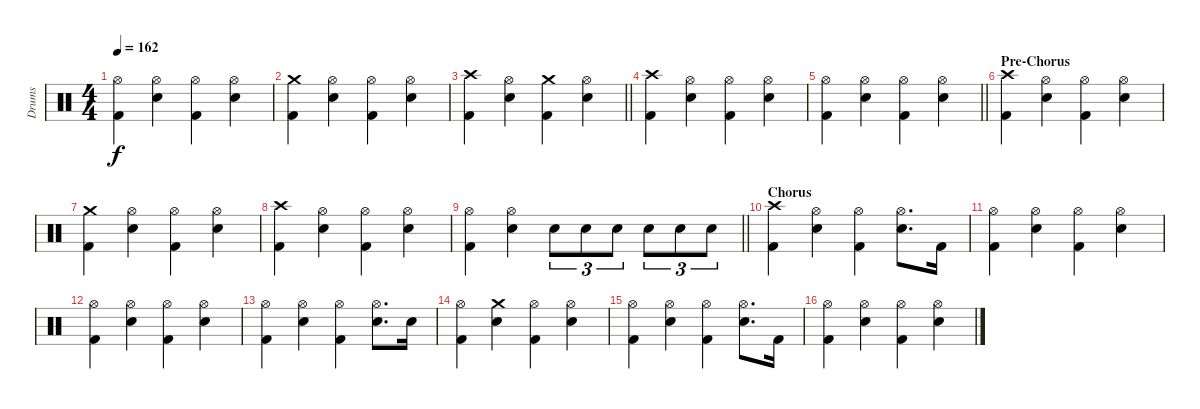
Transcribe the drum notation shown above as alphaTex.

\track ("Drums" "Drums") {instrument percussion}
\staff {score}
\articulation defaults
\ts (4 4)
\tempo 162
\clef neutral
\ks c
("Hi-Hat (open)" "Kick (hit) 2").4{dy f} ("Hi-Hat (open)" "Electric Snare (hit)").4 ("Hi-Hat (open)" "Kick (hit) 2").4 ("Hi-Hat (open)" "Electric Snare (hit)").4 |
("Crash medium (hit)" "Kick (hit) 2").4 ("Hi-Hat (open)" "Electric Snare (hit)").4 ("Hi-Hat (open)" "Kick (hit) 2").4 ("Hi-Hat (open)" "Electric Snare (hit)").4 |
\barLineRight lightlight
("Crash high (hit)" "Kick (hit) 2").4 ("Hi-Hat (open)" "Electric Snare (hit)").4 ("Crash medium (hit)" "Kick (hit) 2").4 ("Hi-Hat (open)" "Electric Snare (hit)").4 |
("Crash high (hit)" "Kick (hit) 2").4 ("Hi-Hat (open)" "Electric Snare (hit)").4 ("Hi-Hat (open)" "Kick (hit) 2").4 ("Hi-Hat (open)" "Electric Snare (hit)").4 |
\barLineRight lightlight
("Hi-Hat (open)" "Kick (hit) 2").4 ("Hi-Hat (open)" "Electric Snare (hit)").4 ("Hi-Hat (open)" "Kick (hit) 2").4 ("Hi-Hat (open)" "Electric Snare (hit)").4 |
\section ("" "Pre-Chorus")
("Crash high (hit)" "Kick (hit) 2").4 ("Hi-Hat (open)" "Electric Snare (hit)").4 ("Hi-Hat (open)" "Kick (hit) 2").4 ("Hi-Hat (open)" "Electric Snare (hit)").4 |
("Crash medium (hit)" "Kick (hit) 2").4 ("Hi-Hat (open)" "Electric Snare (hit)").4 ("Hi-Hat (open)" "Kick (hit) 2").4 ("Hi-Hat (open)" "Electric Snare (hit)").4 |
("Crash high (hit)" "Kick (hit) 2").4 ("Hi-Hat (open)" "Electric Snare (hit)").4 ("Hi-Hat (open)" "Kick (hit) 2").4 ("Hi-Hat (open)" "Electric Snare (hit)").4 |
\barLineRight lightlight
("Hi-Hat (open)" "Kick (hit) 2").4 ("Hi-Hat (open)" "Electric Snare (hit)").4 "Electric Snare (hit)".8{tu (3 2)} "Electric Snare (hit)".8{tu (3 2)} "Electric Snare (hit)".8{tu (3 2)} "Electric Snare (hit)".8{tu (3 2)} "Electric Snare (hit)".8{tu (3 2)} "Electric Snare (hit)".8{tu (3 2)} |
\section ("" "Chorus")
("Crash high (hit)" "Kick (hit) 2").4 ("Hi-Hat (open)" "Electric Snare (hit)").4 ("Hi-Hat (open)" "Kick (hit) 2").4 ("Hi-Hat (open)" "Electric Snare (hit)").8{d} "Kick (hit) 2".16 |
("Hi-Hat (open)" "Kick (hit) 2").4 ("Hi-Hat (open)" "Electric Snare (hit)").4 ("Hi-Hat (open)" "Kick (hit) 2").4 ("Hi-Hat (open)" "Electric Snare (hit)").4 |
("Hi-Hat (open)" "Kick (hit) 2").4 ("Hi-Hat (open)" "Electric Snare (hit)").4 ("Hi-Hat (open)" "Kick (hit) 2").4 ("Hi-Hat (open)" "Electric Snare (hit)").4 |
("Hi-Hat (open)" "Kick (hit) 2").4 ("Hi-Hat (open)" "Electric Snare (hit)").4 ("Hi-Hat (open)" "Kick (hit) 2").4 ("Hi-Hat (open)" "Electric Snare (hit)").8{d} "Electric Snare (hit)".16 |
("Hi-Hat (open)" "Kick (hit) 2").4 ("Crash medium (hit)" "Electric Snare (hit)").4 ("Hi-Hat (open)" "Kick (hit) 2").4 ("Hi-Hat (open)" "Electric Snare (hit)").4 |
("Hi-Hat (open)" "Kick (hit) 2").4 ("Hi-Hat (open)" "Electric Snare (hit)").4 ("Hi-Hat (open)" "Kick (hit) 2").4 ("Hi-Hat (open)" "Electric Snare (hit)").8{d} "Kick (hit) 2".16 |
("Hi-Hat (open)" "Kick (hit) 2").4 ("Hi-Hat (open)" "Electric Snare (hit)").4 ("Hi-Hat (open)" "Kick (hit) 2").4 ("Hi-Hat (open)" "Electric Snare (hit)").4
